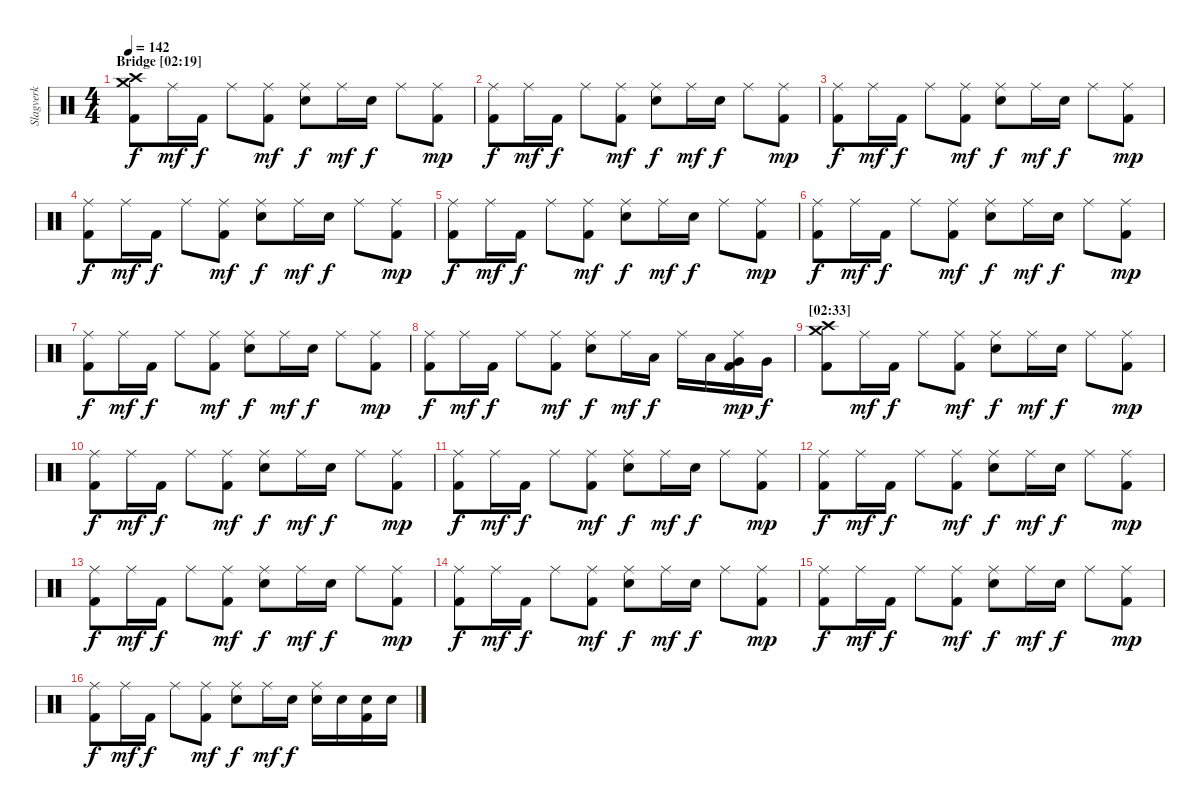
\track ("Slagverk" "Slagverk") {instrument percussion}
\staff {score}
\articulation defaults
\ts (4 4)
\section ("" "Bridge [02:19]")
\tempo 142
\clef neutral
\ks c
("Crash medium (hit)" "Crash high (hit)" "Kick (hit) 2").8{dy f} "Ride (middle)".16{dy mf} "Kick (hit) 2".16{dy f} "Ride (middle)".8 ("Ride (middle)" "Kick (hit) 2").8{dy mf} ("Ride (middle)" "Electric Snare (hit)").8{dy f} "Ride (middle)".16{dy mf} "Electric Snare (hit)".16{dy f} "Ride (middle)".8 ("Ride (middle)" "Kick (hit) 2").8{dy mp} |
("Ride (middle)" "Kick (hit) 2").8{dy f} "Ride (middle)".16{dy mf} "Kick (hit) 2".16{dy f} "Ride (middle)".8 ("Ride (middle)" "Kick (hit) 2").8{dy mf} ("Ride (middle)" "Electric Snare (hit)").8{dy f} "Ride (middle)".16{dy mf} "Electric Snare (hit)".16{dy f} "Ride (middle)".8 ("Ride (middle)" "Kick (hit) 2").8{dy mp} |
("Ride (middle)" "Kick (hit) 2").8{dy f} "Ride (middle)".16{dy mf} "Kick (hit) 2".16{dy f} "Ride (middle)".8 ("Ride (middle)" "Kick (hit) 2").8{dy mf} ("Ride (middle)" "Electric Snare (hit)").8{dy f} "Ride (middle)".16{dy mf} "Electric Snare (hit)".16{dy f} "Ride (middle)".8 ("Ride (middle)" "Kick (hit) 2").8{dy mp} |
("Ride (middle)" "Kick (hit) 2").8{dy f} "Ride (middle)".16{dy mf} "Kick (hit) 2".16{dy f} "Ride (middle)".8 ("Ride (middle)" "Kick (hit) 2").8{dy mf} ("Ride (middle)" "Electric Snare (hit)").8{dy f} "Ride (middle)".16{dy mf} "Electric Snare (hit)".16{dy f} "Ride (middle)".8 ("Ride (middle)" "Kick (hit) 2").8{dy mp} |
("Ride (middle)" "Kick (hit) 2").8{dy f} "Ride (middle)".16{dy mf} "Kick (hit) 2".16{dy f} "Ride (middle)".8 ("Ride (middle)" "Kick (hit) 2").8{dy mf} ("Ride (middle)" "Electric Snare (hit)").8{dy f} "Ride (middle)".16{dy mf} "Electric Snare (hit)".16{dy f} "Ride (middle)".8 ("Ride (middle)" "Kick (hit) 2").8{dy mp} |
("Ride (middle)" "Kick (hit) 2").8{dy f} "Ride (middle)".16{dy mf} "Kick (hit) 2".16{dy f} "Ride (middle)".8 ("Ride (middle)" "Kick (hit) 2").8{dy mf} ("Ride (middle)" "Electric Snare (hit)").8{dy f} "Ride (middle)".16{dy mf} "Electric Snare (hit)".16{dy f} "Ride (middle)".8 ("Ride (middle)" "Kick (hit) 2").8{dy mp} |
("Ride (middle)" "Kick (hit) 2").8{dy f} "Ride (middle)".16{dy mf} "Kick (hit) 2".16{dy f} "Ride (middle)".8 ("Ride (middle)" "Kick (hit) 2").8{dy mf} ("Ride (middle)" "Electric Snare (hit)").8{dy f} "Ride (middle)".16{dy mf} "Electric Snare (hit)".16{dy f} "Ride (middle)".8 ("Ride (middle)" "Kick (hit) 2").8{dy mp} |
("Ride (middle)" "Kick (hit) 2").8{dy f} "Ride (middle)".16{dy mf} "Kick (hit) 2".16{dy f} "Ride (middle)".8 ("Ride (middle)" "Kick (hit) 2").8{dy mf} ("Ride (middle)" "Electric Snare (hit)").8{dy f} "Ride (middle)".16{dy mf} "Low Tom (hit)".16{dy f} "Ride (middle)".16 "Low Tom (hit)".16 ("Ride (middle)" "Very Low Tom (hit)" "Kick (hit) 2").16{dy mp} "Very Low Tom (hit)".16{dy f} |
\section ("" "[02:33]")
("Crash medium (hit)" "Crash high (hit)" "Kick (hit) 2").8 "Ride (middle)".16{dy mf} "Kick (hit) 2".16{dy f} "Ride (middle)".8 ("Ride (middle)" "Kick (hit) 2").8{dy mf} ("Ride (middle)" "Electric Snare (hit)").8{dy f} "Ride (middle)".16{dy mf} "Electric Snare (hit)".16{dy f} "Ride (middle)".8 ("Ride (middle)" "Kick (hit) 2").8{dy mp} |
("Ride (middle)" "Kick (hit) 2").8{dy f} "Ride (middle)".16{dy mf} "Kick (hit) 2".16{dy f} "Ride (middle)".8 ("Ride (middle)" "Kick (hit) 2").8{dy mf} ("Ride (middle)" "Electric Snare (hit)").8{dy f} "Ride (middle)".16{dy mf} "Electric Snare (hit)".16{dy f} "Ride (middle)".8 ("Ride (middle)" "Kick (hit) 2").8{dy mp} |
("Ride (middle)" "Kick (hit) 2").8{dy f} "Ride (middle)".16{dy mf} "Kick (hit) 2".16{dy f} "Ride (middle)".8 ("Ride (middle)" "Kick (hit) 2").8{dy mf} ("Ride (middle)" "Electric Snare (hit)").8{dy f} "Ride (middle)".16{dy mf} "Electric Snare (hit)".16{dy f} "Ride (middle)".8 ("Ride (middle)" "Kick (hit) 2").8{dy mp} |
("Ride (middle)" "Kick (hit) 2").8{dy f} "Ride (middle)".16{dy mf} "Kick (hit) 2".16{dy f} "Ride (middle)".8 ("Ride (middle)" "Kick (hit) 2").8{dy mf} ("Ride (middle)" "Electric Snare (hit)").8{dy f} "Ride (middle)".16{dy mf} "Electric Snare (hit)".16{dy f} "Ride (middle)".8 ("Ride (middle)" "Kick (hit) 2").8{dy mp} |
("Ride (middle)" "Kick (hit) 2").8{dy f} "Ride (middle)".16{dy mf} "Kick (hit) 2".16{dy f} "Ride (middle)".8 ("Ride (middle)" "Kick (hit) 2").8{dy mf} ("Ride (middle)" "Electric Snare (hit)").8{dy f} "Ride (middle)".16{dy mf} "Electric Snare (hit)".16{dy f} "Ride (middle)".8 ("Ride (middle)" "Kick (hit) 2").8{dy mp} |
("Ride (middle)" "Kick (hit) 2").8{dy f} "Ride (middle)".16{dy mf} "Kick (hit) 2".16{dy f} "Ride (middle)".8 ("Ride (middle)" "Kick (hit) 2").8{dy mf} ("Ride (middle)" "Electric Snare (hit)").8{dy f} "Ride (middle)".16{dy mf} "Electric Snare (hit)".16{dy f} "Ride (middle)".8 ("Ride (middle)" "Kick (hit) 2").8{dy mp} |
("Ride (middle)" "Kick (hit) 2").8{dy f} "Ride (middle)".16{dy mf} "Kick (hit) 2".16{dy f} "Ride (middle)".8 ("Ride (middle)" "Kick (hit) 2").8{dy mf} ("Ride (middle)" "Electric Snare (hit)").8{dy f} "Ride (middle)".16{dy mf} "Electric Snare (hit)".16{dy f} "Ride (middle)".8 ("Ride (middle)" "Kick (hit) 2").8{dy mp} |
("Ride (middle)" "Kick (hit) 2").8{dy f} "Ride (middle)".16{dy mf} "Kick (hit) 2".16{dy f} "Ride (middle)".8 ("Ride (middle)" "Kick (hit) 2").8{dy mf} ("Ride (middle)" "Electric Snare (hit)").8{dy f} "Ride (middle)".16{dy mf} "Electric Snare (hit)".16{dy f} ("Ride (middle)" "Electric Snare (hit)").16 "Electric Snare (hit)".16 ("Electric Snare (hit)" "Kick (hit) 2").16 "Electric Snare (hit)".16
